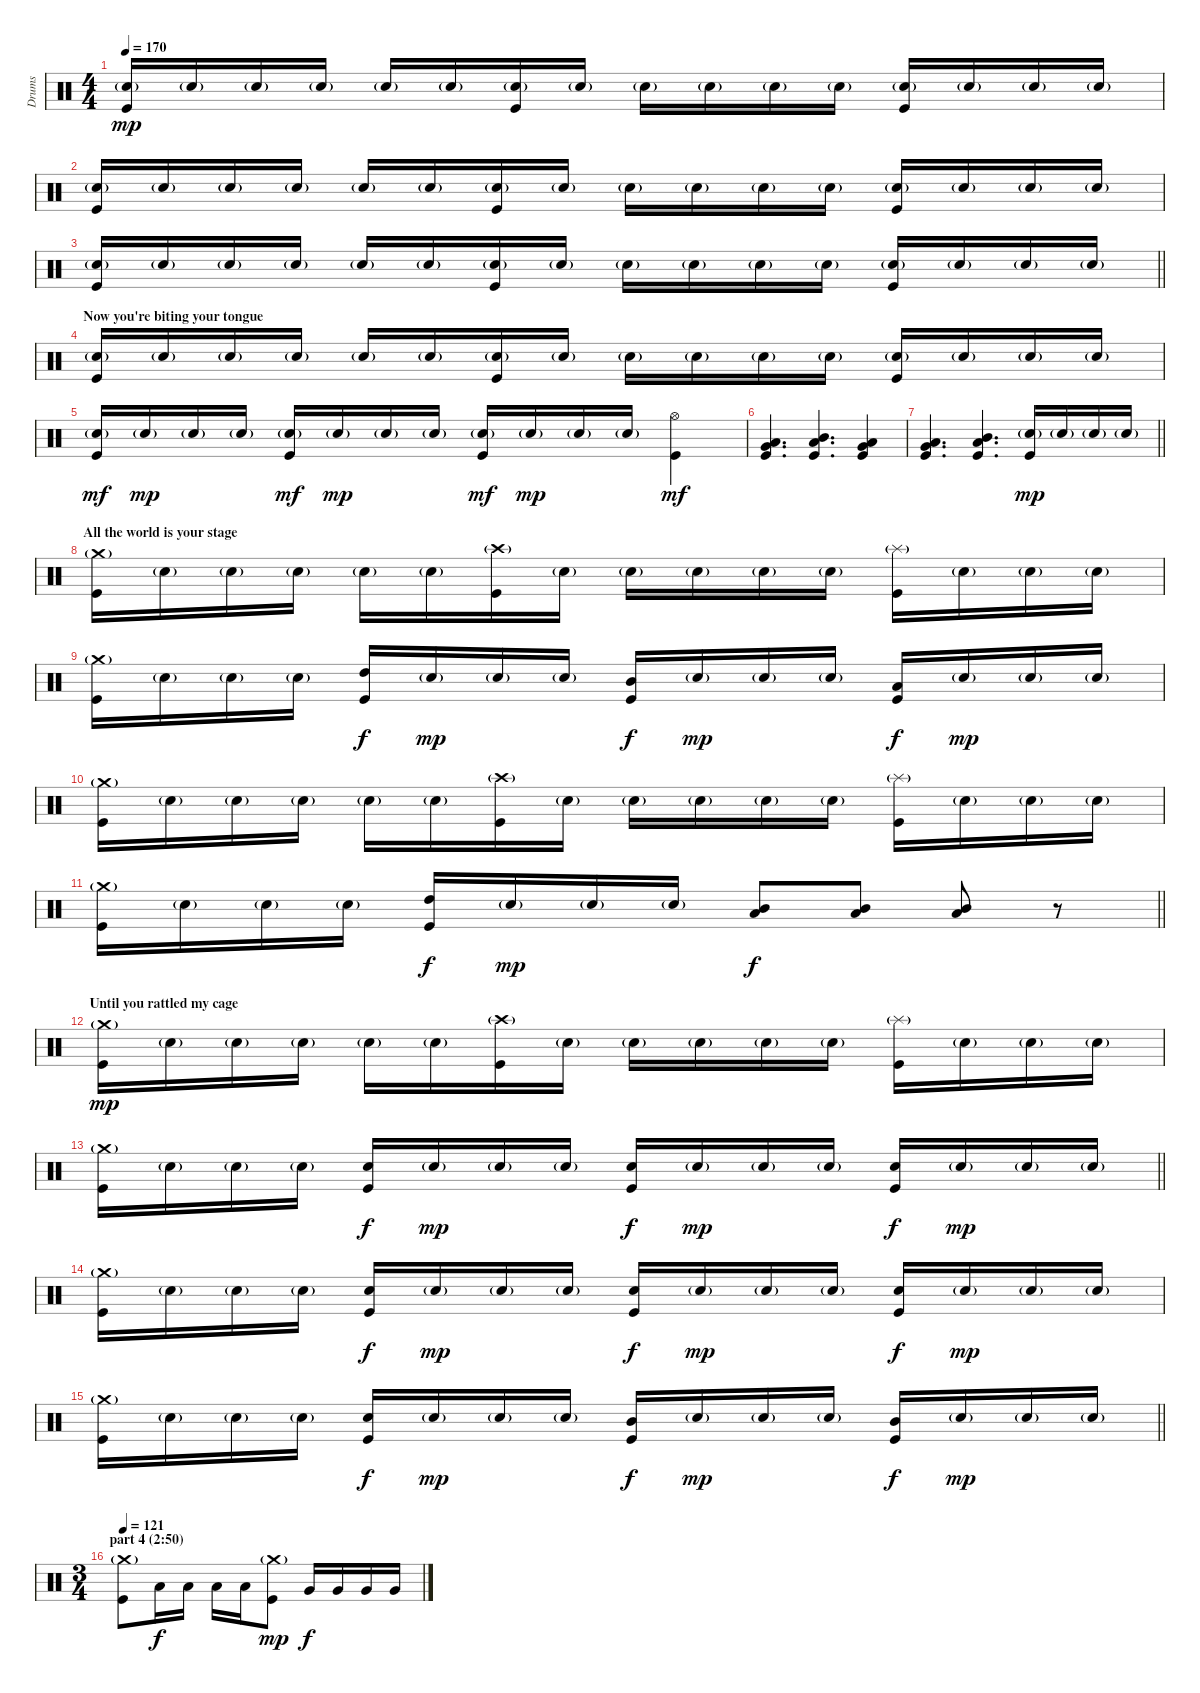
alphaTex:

\track ("Drums" "Drums") {instrument percussion}
\staff {score}
\articulation defaults
\ts (4 4)
\tempo 170
\clef neutral
\ks c
("Snare (hit) 2"{g} "Kick (hit)").16{dy mp} "Snare (hit) 2"{g}.16 "Snare (hit) 2"{g}.16 "Snare (hit) 2"{g}.16 "Snare (hit) 2"{g}.16 "Snare (hit) 2"{g}.16 ("Snare (hit) 2"{g} "Kick (hit)").16 "Snare (hit) 2"{g}.16 "Snare (hit) 2"{g}.16 "Snare (hit) 2"{g}.16 "Snare (hit) 2"{g}.16 "Snare (hit) 2"{g}.16 ("Snare (hit) 2"{g} "Kick (hit)").16 "Snare (hit) 2"{g}.16 "Snare (hit) 2"{g}.16 "Snare (hit) 2"{g}.16 |
("Snare (hit) 2"{g} "Kick (hit)").16 "Snare (hit) 2"{g}.16 "Snare (hit) 2"{g}.16 "Snare (hit) 2"{g}.16 "Snare (hit) 2"{g}.16 "Snare (hit) 2"{g}.16 ("Snare (hit) 2"{g} "Kick (hit)").16 "Snare (hit) 2"{g}.16 "Snare (hit) 2"{g}.16 "Snare (hit) 2"{g}.16 "Snare (hit) 2"{g}.16 "Snare (hit) 2"{g}.16 ("Snare (hit) 2"{g} "Kick (hit)").16 "Snare (hit) 2"{g}.16 "Snare (hit) 2"{g}.16 "Snare (hit) 2"{g}.16 |
\barLineRight lightlight
("Snare (hit) 2"{g} "Kick (hit)").16 "Snare (hit) 2"{g}.16 "Snare (hit) 2"{g}.16 "Snare (hit) 2"{g}.16 "Snare (hit) 2"{g}.16 "Snare (hit) 2"{g}.16 ("Snare (hit) 2"{g} "Kick (hit)").16 "Snare (hit) 2"{g}.16 "Snare (hit) 2"{g}.16 "Snare (hit) 2"{g}.16 "Snare (hit) 2"{g}.16 "Snare (hit) 2"{g}.16 ("Snare (hit) 2"{g} "Kick (hit)").16 "Snare (hit) 2"{g}.16 "Snare (hit) 2"{g}.16 "Snare (hit) 2"{g}.16 |
\section ("" "Now you're biting your tongue ")
("Snare (hit) 2"{g} "Kick (hit)").16 "Snare (hit) 2"{g}.16 "Snare (hit) 2"{g}.16 "Snare (hit) 2"{g}.16 "Snare (hit) 2"{g}.16 "Snare (hit) 2"{g}.16 ("Snare (hit) 2"{g} "Kick (hit)").16 "Snare (hit) 2"{g}.16 "Snare (hit) 2"{g}.16 "Snare (hit) 2"{g}.16 "Snare (hit) 2"{g}.16 "Snare (hit) 2"{g}.16 ("Snare (hit) 2"{g} "Kick (hit)").16 "Snare (hit) 2"{g}.16 "Snare (hit) 2"{g}.16 "Snare (hit) 2"{g}.16 |
("Snare (hit) 2"{g} "Kick (hit)").16{dy mf} "Snare (hit) 2"{g}.16{dy mp} "Snare (hit) 2"{g}.16 "Snare (hit) 2"{g}.16 ("Snare (hit) 2"{g} "Kick (hit)").16{dy mf} "Snare (hit) 2"{g}.16{dy mp} "Snare (hit) 2"{g}.16 "Snare (hit) 2"{g}.16 ("Snare (hit) 2"{g} "Kick (hit)").16{dy mf} "Snare (hit) 2"{g}.16{dy mp} "Snare (hit) 2"{g}.16 "Snare (hit) 2"{g}.16 ("Hi-Hat (open)" "Kick (hit)").4{dy mf} |
("Low Tom (hit)" "Very Low Tom (hit)" "Kick (hit)").4{d} ("Mid Tom (hit)" "Low Tom (hit)" "Kick (hit)").4{d} ("Low Tom (hit)" "Very Low Tom (hit)" "Kick (hit)").4 |
\barLineRight lightlight
("Low Tom (hit)" "Very Low Tom (hit)" "Kick (hit)").4{d} ("Mid Tom (hit)" "Low Tom (hit)" "Kick (hit)").4{d} ("Snare (hit) 2"{g} "Kick (hit)").16{dy mp} "Snare (hit) 2"{g}.16 "Snare (hit) 2"{g}.16 "Snare (hit) 2"{g}.16 |
\section ("" "All the world is your stage")
("Crash medium (hit)"{g} "Kick (hit)").16 "Snare (hit) 2"{g}.16 "Snare (hit) 2"{g}.16 "Snare (hit) 2"{g}.16 "Snare (hit) 2"{g}.16 "Snare (hit) 2"{g}.16 ("Crash high (hit)"{g} "Kick (hit)").16 "Snare (hit) 2"{g}.16 "Snare (hit) 2"{g}.16 "Snare (hit) 2"{g}.16 "Snare (hit) 2"{g}.16 "Snare (hit) 2"{g}.16 ("Splash (hit)"{g} "Kick (hit)").16 "Snare (hit) 2"{g}.16 "Snare (hit) 2"{g}.16 "Snare (hit) 2"{g}.16 |
("Crash medium (hit)"{g} "Kick (hit)").16 "Snare (hit) 2"{g}.16 "Snare (hit) 2"{g}.16 "Snare (hit) 2"{g}.16 ("High Tom (hit)" "Kick (hit)").16{dy f} "Snare (hit) 2"{g}.16{dy mp} "Snare (hit) 2"{g}.16 "Snare (hit) 2"{g}.16 ("Mid Tom (hit)" "Kick (hit)").16{dy f} "Snare (hit) 2"{g}.16{dy mp} "Snare (hit) 2"{g}.16 "Snare (hit) 2"{g}.16 ("Low Tom (hit)" "Kick (hit)").16{dy f} "Snare (hit) 2"{g}.16{dy mp} "Snare (hit) 2"{g}.16 "Snare (hit) 2"{g}.16 |
("Crash medium (hit)"{g} "Kick (hit)").16 "Snare (hit) 2"{g}.16 "Snare (hit) 2"{g}.16 "Snare (hit) 2"{g}.16 "Snare (hit) 2"{g}.16 "Snare (hit) 2"{g}.16 ("Crash high (hit)"{g} "Kick (hit)").16 "Snare (hit) 2"{g}.16 "Snare (hit) 2"{g}.16 "Snare (hit) 2"{g}.16 "Snare (hit) 2"{g}.16 "Snare (hit) 2"{g}.16 ("Splash (hit)"{g} "Kick (hit)").16 "Snare (hit) 2"{g}.16 "Snare (hit) 2"{g}.16 "Snare (hit) 2"{g}.16 |
\barLineRight lightlight
("Crash medium (hit)"{g} "Kick (hit)").16 "Snare (hit) 2"{g}.16 "Snare (hit) 2"{g}.16 "Snare (hit) 2"{g}.16 ("High Tom (hit)" "Kick (hit)").16{dy f} "Snare (hit) 2"{g}.16{dy mp} "Snare (hit) 2"{g}.16 "Snare (hit) 2"{g}.16 ("Mid Tom (hit)" "Low Tom (hit)").8{dy f} ("Mid Tom (hit)" "Low Tom (hit)").8 ("Mid Tom (hit)" "Low Tom (hit)").8 r.8 |
\section ("" "Until you rattled my cage ")
("Crash medium (hit)"{g} "Kick (hit)").16{dy mp} "Snare (hit) 2"{g}.16 "Snare (hit) 2"{g}.16 "Snare (hit) 2"{g}.16 "Snare (hit) 2"{g}.16 "Snare (hit) 2"{g}.16 ("Crash high (hit)"{g} "Kick (hit)").16 "Snare (hit) 2"{g}.16 "Snare (hit) 2"{g}.16 "Snare (hit) 2"{g}.16 "Snare (hit) 2"{g}.16 "Snare (hit) 2"{g}.16 ("Splash (hit)"{g} "Kick (hit)").16 "Snare (hit) 2"{g}.16 "Snare (hit) 2"{g}.16 "Snare (hit) 2"{g}.16 |
\barLineRight lightlight
("Crash medium (hit)"{g} "Kick (hit)").16 "Snare (hit) 2"{g}.16 "Snare (hit) 2"{g}.16 "Snare (hit) 2"{g}.16 ("Snare (hit) 2" "Kick (hit)").16{dy f} "Snare (hit) 2"{g}.16{dy mp} "Snare (hit) 2"{g}.16 "Snare (hit) 2"{g}.16 ("Snare (hit) 2" "Kick (hit)").16{dy f} "Snare (hit) 2"{g}.16{dy mp} "Snare (hit) 2"{g}.16 "Snare (hit) 2"{g}.16 ("Snare (hit) 2" "Kick (hit)").16{dy f} "Snare (hit) 2"{g}.16{dy mp} "Snare (hit) 2"{g}.16 "Snare (hit) 2"{g}.16 |
("Crash medium (hit)"{g} "Kick (hit)").16 "Snare (hit) 2"{g}.16 "Snare (hit) 2"{g}.16 "Snare (hit) 2"{g}.16 ("Snare (hit) 2" "Kick (hit)").16{dy f} "Snare (hit) 2"{g}.16{dy mp} "Snare (hit) 2"{g}.16 "Snare (hit) 2"{g}.16 ("Snare (hit) 2" "Kick (hit)").16{dy f} "Snare (hit) 2"{g}.16{dy mp} "Snare (hit) 2"{g}.16 "Snare (hit) 2"{g}.16 ("Snare (hit) 2" "Kick (hit)").16{dy f} "Snare (hit) 2"{g}.16{dy mp} "Snare (hit) 2"{g}.16 "Snare (hit) 2"{g}.16 |
\barLineRight lightlight
("Crash medium (hit)"{g} "Kick (hit)").16 "Snare (hit) 2"{g}.16 "Snare (hit) 2"{g}.16 "Snare (hit) 2"{g}.16 ("Snare (hit) 2" "Kick (hit)").16{dy f} "Snare (hit) 2"{g}.16{dy mp} "Snare (hit) 2"{g}.16 "Snare (hit) 2"{g}.16 ("Mid Tom (hit)" "Kick (hit)").16{dy f} "Snare (hit) 2"{g}.16{dy mp} "Snare (hit) 2"{g}.16 "Snare (hit) 2"{g}.16 ("Mid Tom (hit)" "Kick (hit)").16{dy f} "Snare (hit) 2"{g}.16{dy mp} "Snare (hit) 2"{g}.16 "Snare (hit) 2"{g}.16 |
\ts (3 4)
\section ("" "part 4 (2:50)")
\tempo 121
("Crash medium (hit)"{g} "Kick (hit)").8 "Low Tom (hit)".16{dy f} "Low Tom (hit)".16 "Low Tom (hit)".16 "Low Tom (hit)".16 ("Crash medium (hit)"{g} "Kick (hit)").8{dy mp} "Very Low Tom (hit)".16{dy f} "Very Low Tom (hit)".16 "Very Low Tom (hit)".16 "Very Low Tom (hit)".16
